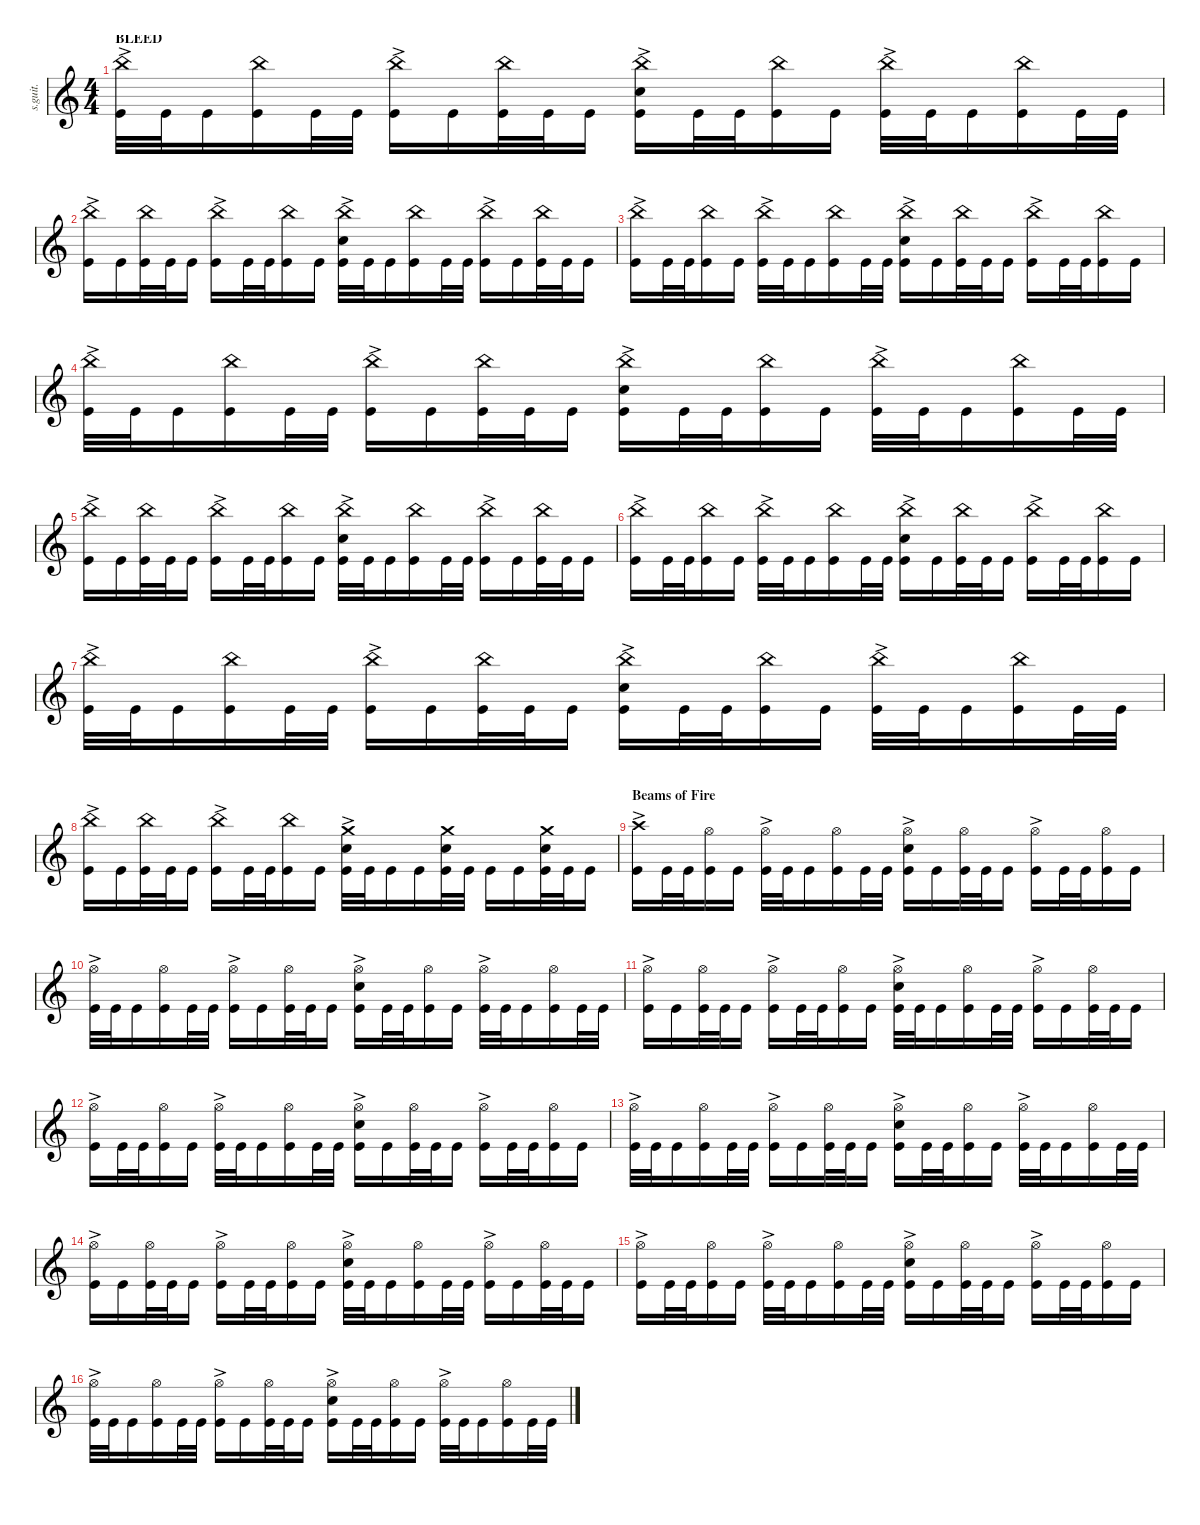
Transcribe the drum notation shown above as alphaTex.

\defaultSystemsLayout 4
\hideDynamics
\bracketExtendMode nobrackets
\track ("Tomas Haake (Drums)" "s.guit.") {instrument percussion}
\staff {score}
\articulation defaults
\ts (4 4)
\beaming (8 2 2 2 2)
\section ("" "BLEED")
\tempo (115 hide)
\clef g2
\ks c
("China (hit)"{ac} "Kick (hit)").32{lyrics (0 "") lyrics (1 "") lyrics (2 "") lyrics (3 "") lyrics (4 "") dy f} "Kick (hit)".32{lyrics (0 "") lyrics (1 "") lyrics (2 "") lyrics (3 "") lyrics (4 "") dy mf} "Kick (hit)".16{lyrics (0 "") lyrics (1 "") lyrics (2 "") lyrics (3 "") lyrics (4 "") dy f} ("China (hit)" "Kick (hit)").16{lyrics (0 "") lyrics (1 "") lyrics (2 "") lyrics (3 "") lyrics (4 "") dy mp} "Kick (hit)".32{lyrics (0 "") lyrics (1 "") lyrics (2 "") lyrics (3 "") lyrics (4 "") dy f} "Kick (hit)".32{lyrics (0 "") lyrics (1 "") lyrics (2 "") lyrics (3 "") lyrics (4 "") dy mf} ("China (hit)"{ac} "Kick (hit)").16{lyrics (0 "") lyrics (1 "") lyrics (2 "") lyrics (3 "") lyrics (4 "") dy f} "Kick (hit)".16{lyrics (0 "") lyrics (1 "") lyrics (2 "") lyrics (3 "") lyrics (4 "")} ("China (hit)" "Kick (hit)").32{lyrics (0 "") lyrics (1 "") lyrics (2 "") lyrics (3 "") lyrics (4 "") dy mp} "Kick (hit)".32{lyrics (0 "") lyrics (1 "") lyrics (2 "") lyrics (3 "") lyrics (4 "") dy mf} "Kick (hit)".16{lyrics (0 "") lyrics (1 "") lyrics (2 "") lyrics (3 "") lyrics (4 "") dy f} ("China (hit)"{ac} "Snare (hit) 2" "Kick (hit)").16{lyrics (0 "") lyrics (1 "") lyrics (2 "") lyrics (3 "") lyrics (4 "")} "Kick (hit)".32{lyrics (0 "") lyrics (1 "") lyrics (2 "") lyrics (3 "") lyrics (4 "")} "Kick (hit)".32{lyrics (0 "") lyrics (1 "") lyrics (2 "") lyrics (3 "") lyrics (4 "") dy mf} ("China (hit)" "Kick (hit)").16{lyrics (0 "") lyrics (1 "") lyrics (2 "") lyrics (3 "") lyrics (4 "") dy mp} "Kick (hit)".16{lyrics (0 "") lyrics (1 "") lyrics (2 "") lyrics (3 "") lyrics (4 "") dy f} ("China (hit)"{ac} "Kick (hit)").32{lyrics (0 "") lyrics (1 "") lyrics (2 "") lyrics (3 "") lyrics (4 "")} "Kick (hit)".32{lyrics (0 "") lyrics (1 "") lyrics (2 "") lyrics (3 "") lyrics (4 "") dy mf} "Kick (hit)".16{lyrics (0 "") lyrics (1 "") lyrics (2 "") lyrics (3 "") lyrics (4 "") dy f} ("China (hit)" "Kick (hit)").16{lyrics (0 "") lyrics (1 "") lyrics (2 "") lyrics (3 "") lyrics (4 "") dy mp} "Kick (hit)".32{lyrics (0 "") lyrics (1 "") lyrics (2 "") lyrics (3 "") lyrics (4 "") dy f} "Kick (hit)".32{lyrics (0 "") lyrics (1 "") lyrics (2 "") lyrics (3 "") lyrics (4 "") dy mf} |
("China (hit)"{ac} "Kick (hit)").16{lyrics (0 "") lyrics (1 "") lyrics (2 "") lyrics (3 "") lyrics (4 "") dy f} "Kick (hit)".16{lyrics (0 "") lyrics (1 "") lyrics (2 "") lyrics (3 "") lyrics (4 "")} ("China (hit)" "Kick (hit)").32{lyrics (0 "") lyrics (1 "") lyrics (2 "") lyrics (3 "") lyrics (4 "") dy mp} "Kick (hit)".32{lyrics (0 "") lyrics (1 "") lyrics (2 "") lyrics (3 "") lyrics (4 "") dy mf} "Kick (hit)".16{lyrics (0 "") lyrics (1 "") lyrics (2 "") lyrics (3 "") lyrics (4 "") dy f} ("China (hit)"{ac} "Kick (hit)").16{lyrics (0 "") lyrics (1 "") lyrics (2 "") lyrics (3 "") lyrics (4 "")} "Kick (hit)".32{lyrics (0 "") lyrics (1 "") lyrics (2 "") lyrics (3 "") lyrics (4 "")} "Kick (hit)".32{lyrics (0 "") lyrics (1 "") lyrics (2 "") lyrics (3 "") lyrics (4 "") dy mf} ("China (hit)" "Kick (hit)").16{lyrics (0 "") lyrics (1 "") lyrics (2 "") lyrics (3 "") lyrics (4 "") dy mp} "Kick (hit)".16{lyrics (0 "") lyrics (1 "") lyrics (2 "") lyrics (3 "") lyrics (4 "") dy f} ("China (hit)"{ac} "Snare (hit) 2" "Kick (hit)").32{lyrics (0 "") lyrics (1 "") lyrics (2 "") lyrics (3 "") lyrics (4 "")} "Kick (hit)".32{lyrics (0 "") lyrics (1 "") lyrics (2 "") lyrics (3 "") lyrics (4 "") dy mf} "Kick (hit)".16{lyrics (0 "") lyrics (1 "") lyrics (2 "") lyrics (3 "") lyrics (4 "") dy f} ("China (hit)" "Kick (hit)").16{lyrics (0 "") lyrics (1 "") lyrics (2 "") lyrics (3 "") lyrics (4 "") dy mp} "Kick (hit)".32{lyrics (0 "") lyrics (1 "") lyrics (2 "") lyrics (3 "") lyrics (4 "") dy f} "Kick (hit)".32{lyrics (0 "") lyrics (1 "") lyrics (2 "") lyrics (3 "") lyrics (4 "") dy mf} ("China (hit)"{ac} "Kick (hit)").16{lyrics (0 "") lyrics (1 "") lyrics (2 "") lyrics (3 "") lyrics (4 "") dy f} "Kick (hit)".16{lyrics (0 "") lyrics (1 "") lyrics (2 "") lyrics (3 "") lyrics (4 "")} ("China (hit)" "Kick (hit)").32{lyrics (0 "") lyrics (1 "") lyrics (2 "") lyrics (3 "") lyrics (4 "") dy mp} "Kick (hit)".32{lyrics (0 "") lyrics (1 "") lyrics (2 "") lyrics (3 "") lyrics (4 "") dy mf} "Kick (hit)".16{lyrics (0 "") lyrics (1 "") lyrics (2 "") lyrics (3 "") lyrics (4 "") dy f} |
("China (hit)"{ac} "Kick (hit)").16{lyrics (0 "") lyrics (1 "") lyrics (2 "") lyrics (3 "") lyrics (4 "")} "Kick (hit)".32{lyrics (0 "") lyrics (1 "") lyrics (2 "") lyrics (3 "") lyrics (4 "")} "Kick (hit)".32{lyrics (0 "") lyrics (1 "") lyrics (2 "") lyrics (3 "") lyrics (4 "") dy mf} ("China (hit)" "Kick (hit)").16{lyrics (0 "") lyrics (1 "") lyrics (2 "") lyrics (3 "") lyrics (4 "") dy mp} "Kick (hit)".16{lyrics (0 "") lyrics (1 "") lyrics (2 "") lyrics (3 "") lyrics (4 "") dy f} ("China (hit)"{ac} "Kick (hit)").32{lyrics (0 "") lyrics (1 "") lyrics (2 "") lyrics (3 "") lyrics (4 "")} "Kick (hit)".32{lyrics (0 "") lyrics (1 "") lyrics (2 "") lyrics (3 "") lyrics (4 "") dy mf} "Kick (hit)".16{lyrics (0 "") lyrics (1 "") lyrics (2 "") lyrics (3 "") lyrics (4 "") dy f} ("China (hit)" "Kick (hit)").16{lyrics (0 "") lyrics (1 "") lyrics (2 "") lyrics (3 "") lyrics (4 "") dy mp} "Kick (hit)".32{lyrics (0 "") lyrics (1 "") lyrics (2 "") lyrics (3 "") lyrics (4 "") dy f} "Kick (hit)".32{lyrics (0 "") lyrics (1 "") lyrics (2 "") lyrics (3 "") lyrics (4 "") dy mf} ("China (hit)"{ac} "Snare (hit) 2" "Kick (hit)").16{lyrics (0 "") lyrics (1 "") lyrics (2 "") lyrics (3 "") lyrics (4 "") dy f} "Kick (hit)".16{lyrics (0 "") lyrics (1 "") lyrics (2 "") lyrics (3 "") lyrics (4 "")} ("China (hit)" "Kick (hit)").32{lyrics (0 "") lyrics (1 "") lyrics (2 "") lyrics (3 "") lyrics (4 "") dy mp} "Kick (hit)".32{lyrics (0 "") lyrics (1 "") lyrics (2 "") lyrics (3 "") lyrics (4 "") dy mf} "Kick (hit)".16{lyrics (0 "") lyrics (1 "") lyrics (2 "") lyrics (3 "") lyrics (4 "") dy f} ("China (hit)"{ac} "Kick (hit)").16{lyrics (0 "") lyrics (1 "") lyrics (2 "") lyrics (3 "") lyrics (4 "")} "Kick (hit)".32{lyrics (0 "") lyrics (1 "") lyrics (2 "") lyrics (3 "") lyrics (4 "")} "Kick (hit)".32{lyrics (0 "") lyrics (1 "") lyrics (2 "") lyrics (3 "") lyrics (4 "") dy mf} ("China (hit)" "Kick (hit)").16{lyrics (0 "") lyrics (1 "") lyrics (2 "") lyrics (3 "") lyrics (4 "") dy mp} "Kick (hit)".16{lyrics (0 "") lyrics (1 "") lyrics (2 "") lyrics (3 "") lyrics (4 "") dy f} |
("China (hit)"{ac} "Kick (hit)").32{lyrics (0 "") lyrics (1 "") lyrics (2 "") lyrics (3 "") lyrics (4 "")} "Kick (hit)".32{lyrics (0 "") lyrics (1 "") lyrics (2 "") lyrics (3 "") lyrics (4 "") dy mf} "Kick (hit)".16{lyrics (0 "") lyrics (1 "") lyrics (2 "") lyrics (3 "") lyrics (4 "") dy f} ("China (hit)" "Kick (hit)").16{lyrics (0 "") lyrics (1 "") lyrics (2 "") lyrics (3 "") lyrics (4 "") dy mp} "Kick (hit)".32{lyrics (0 "") lyrics (1 "") lyrics (2 "") lyrics (3 "") lyrics (4 "") dy f} "Kick (hit)".32{lyrics (0 "") lyrics (1 "") lyrics (2 "") lyrics (3 "") lyrics (4 "") dy mf} ("China (hit)"{ac} "Kick (hit)").16{lyrics (0 "") lyrics (1 "") lyrics (2 "") lyrics (3 "") lyrics (4 "") dy f} "Kick (hit)".16{lyrics (0 "") lyrics (1 "") lyrics (2 "") lyrics (3 "") lyrics (4 "")} ("China (hit)" "Kick (hit)").32{lyrics (0 "") lyrics (1 "") lyrics (2 "") lyrics (3 "") lyrics (4 "") dy mp} "Kick (hit)".32{lyrics (0 "") lyrics (1 "") lyrics (2 "") lyrics (3 "") lyrics (4 "") dy mf} "Kick (hit)".16{lyrics (0 "") lyrics (1 "") lyrics (2 "") lyrics (3 "") lyrics (4 "") dy f} ("China (hit)"{ac} "Snare (hit) 2" "Kick (hit)").16{lyrics (0 "") lyrics (1 "") lyrics (2 "") lyrics (3 "") lyrics (4 "")} "Kick (hit)".32{lyrics (0 "") lyrics (1 "") lyrics (2 "") lyrics (3 "") lyrics (4 "")} "Kick (hit)".32{lyrics (0 "") lyrics (1 "") lyrics (2 "") lyrics (3 "") lyrics (4 "") dy mf} ("China (hit)" "Kick (hit)").16{lyrics (0 "") lyrics (1 "") lyrics (2 "") lyrics (3 "") lyrics (4 "") dy mp} "Kick (hit)".16{lyrics (0 "") lyrics (1 "") lyrics (2 "") lyrics (3 "") lyrics (4 "") dy f} ("China (hit)"{ac} "Kick (hit)").32{lyrics (0 "") lyrics (1 "") lyrics (2 "") lyrics (3 "") lyrics (4 "")} "Kick (hit)".32{lyrics (0 "") lyrics (1 "") lyrics (2 "") lyrics (3 "") lyrics (4 "") dy mf} "Kick (hit)".16{lyrics (0 "") lyrics (1 "") lyrics (2 "") lyrics (3 "") lyrics (4 "") dy f} ("China (hit)" "Kick (hit)").16{lyrics (0 "") lyrics (1 "") lyrics (2 "") lyrics (3 "") lyrics (4 "") dy mp} "Kick (hit)".32{lyrics (0 "") lyrics (1 "") lyrics (2 "") lyrics (3 "") lyrics (4 "") dy f} "Kick (hit)".32{lyrics (0 "") lyrics (1 "") lyrics (2 "") lyrics (3 "") lyrics (4 "") dy mf} |
("China (hit)"{ac} "Kick (hit)").16{lyrics (0 "") lyrics (1 "") lyrics (2 "") lyrics (3 "") lyrics (4 "") dy f} "Kick (hit)".16{lyrics (0 "") lyrics (1 "") lyrics (2 "") lyrics (3 "") lyrics (4 "")} ("China (hit)" "Kick (hit)").32{lyrics (0 "") lyrics (1 "") lyrics (2 "") lyrics (3 "") lyrics (4 "") dy mp} "Kick (hit)".32{lyrics (0 "") lyrics (1 "") lyrics (2 "") lyrics (3 "") lyrics (4 "") dy mf} "Kick (hit)".16{lyrics (0 "") lyrics (1 "") lyrics (2 "") lyrics (3 "") lyrics (4 "") dy f} ("China (hit)"{ac} "Kick (hit)").16{lyrics (0 "") lyrics (1 "") lyrics (2 "") lyrics (3 "") lyrics (4 "")} "Kick (hit)".32{lyrics (0 "") lyrics (1 "") lyrics (2 "") lyrics (3 "") lyrics (4 "")} "Kick (hit)".32{lyrics (0 "") lyrics (1 "") lyrics (2 "") lyrics (3 "") lyrics (4 "") dy mf} ("China (hit)" "Kick (hit)").16{lyrics (0 "") lyrics (1 "") lyrics (2 "") lyrics (3 "") lyrics (4 "") dy mp} "Kick (hit)".16{lyrics (0 "") lyrics (1 "") lyrics (2 "") lyrics (3 "") lyrics (4 "") dy f} ("China (hit)"{ac} "Snare (hit) 2" "Kick (hit)").32{lyrics (0 "") lyrics (1 "") lyrics (2 "") lyrics (3 "") lyrics (4 "")} "Kick (hit)".32{lyrics (0 "") lyrics (1 "") lyrics (2 "") lyrics (3 "") lyrics (4 "") dy mf} "Kick (hit)".16{lyrics (0 "") lyrics (1 "") lyrics (2 "") lyrics (3 "") lyrics (4 "") dy f} ("China (hit)" "Kick (hit)").16{lyrics (0 "") lyrics (1 "") lyrics (2 "") lyrics (3 "") lyrics (4 "") dy mp} "Kick (hit)".32{lyrics (0 "") lyrics (1 "") lyrics (2 "") lyrics (3 "") lyrics (4 "") dy f} "Kick (hit)".32{lyrics (0 "") lyrics (1 "") lyrics (2 "") lyrics (3 "") lyrics (4 "") dy mf} ("China (hit)"{ac} "Kick (hit)").16{lyrics (0 "") lyrics (1 "") lyrics (2 "") lyrics (3 "") lyrics (4 "") dy f} "Kick (hit)".16{lyrics (0 "") lyrics (1 "") lyrics (2 "") lyrics (3 "") lyrics (4 "")} ("China (hit)" "Kick (hit)").32{lyrics (0 "") lyrics (1 "") lyrics (2 "") lyrics (3 "") lyrics (4 "") dy mp} "Kick (hit)".32{lyrics (0 "") lyrics (1 "") lyrics (2 "") lyrics (3 "") lyrics (4 "") dy mf} "Kick (hit)".16{lyrics (0 "") lyrics (1 "") lyrics (2 "") lyrics (3 "") lyrics (4 "") dy f} |
("China (hit)"{ac} "Kick (hit)").16{lyrics (0 "") lyrics (1 "") lyrics (2 "") lyrics (3 "") lyrics (4 "")} "Kick (hit)".32{lyrics (0 "") lyrics (1 "") lyrics (2 "") lyrics (3 "") lyrics (4 "")} "Kick (hit)".32{lyrics (0 "") lyrics (1 "") lyrics (2 "") lyrics (3 "") lyrics (4 "") dy mf} ("China (hit)" "Kick (hit)").16{lyrics (0 "") lyrics (1 "") lyrics (2 "") lyrics (3 "") lyrics (4 "") dy mp} "Kick (hit)".16{lyrics (0 "") lyrics (1 "") lyrics (2 "") lyrics (3 "") lyrics (4 "") dy f} ("China (hit)"{ac} "Kick (hit)").32{lyrics (0 "") lyrics (1 "") lyrics (2 "") lyrics (3 "") lyrics (4 "")} "Kick (hit)".32{lyrics (0 "") lyrics (1 "") lyrics (2 "") lyrics (3 "") lyrics (4 "") dy mf} "Kick (hit)".16{lyrics (0 "") lyrics (1 "") lyrics (2 "") lyrics (3 "") lyrics (4 "") dy f} ("China (hit)" "Kick (hit)").16{lyrics (0 "") lyrics (1 "") lyrics (2 "") lyrics (3 "") lyrics (4 "") dy mp} "Kick (hit)".32{lyrics (0 "") lyrics (1 "") lyrics (2 "") lyrics (3 "") lyrics (4 "") dy f} "Kick (hit)".32{lyrics (0 "") lyrics (1 "") lyrics (2 "") lyrics (3 "") lyrics (4 "") dy mf} ("China (hit)"{ac} "Snare (hit) 2" "Kick (hit)").16{lyrics (0 "") lyrics (1 "") lyrics (2 "") lyrics (3 "") lyrics (4 "") dy f} "Kick (hit)".16{lyrics (0 "") lyrics (1 "") lyrics (2 "") lyrics (3 "") lyrics (4 "")} ("China (hit)" "Kick (hit)").32{lyrics (0 "") lyrics (1 "") lyrics (2 "") lyrics (3 "") lyrics (4 "") dy mp} "Kick (hit)".32{lyrics (0 "") lyrics (1 "") lyrics (2 "") lyrics (3 "") lyrics (4 "") dy mf} "Kick (hit)".16{lyrics (0 "") lyrics (1 "") lyrics (2 "") lyrics (3 "") lyrics (4 "") dy f} ("China (hit)"{ac} "Kick (hit)").16{lyrics (0 "") lyrics (1 "") lyrics (2 "") lyrics (3 "") lyrics (4 "")} "Kick (hit)".32{lyrics (0 "") lyrics (1 "") lyrics (2 "") lyrics (3 "") lyrics (4 "")} "Kick (hit)".32{lyrics (0 "") lyrics (1 "") lyrics (2 "") lyrics (3 "") lyrics (4 "") dy mf} ("China (hit)" "Kick (hit)").16{lyrics (0 "") lyrics (1 "") lyrics (2 "") lyrics (3 "") lyrics (4 "") dy mp} "Kick (hit)".16{lyrics (0 "") lyrics (1 "") lyrics (2 "") lyrics (3 "") lyrics (4 "") dy f} |
("China (hit)"{ac} "Kick (hit)").32{lyrics (0 "") lyrics (1 "") lyrics (2 "") lyrics (3 "") lyrics (4 "")} "Kick (hit)".32{lyrics (0 "") lyrics (1 "") lyrics (2 "") lyrics (3 "") lyrics (4 "") dy mf} "Kick (hit)".16{lyrics (0 "") lyrics (1 "") lyrics (2 "") lyrics (3 "") lyrics (4 "") dy f} ("China (hit)" "Kick (hit)").16{lyrics (0 "") lyrics (1 "") lyrics (2 "") lyrics (3 "") lyrics (4 "") dy mp} "Kick (hit)".32{lyrics (0 "") lyrics (1 "") lyrics (2 "") lyrics (3 "") lyrics (4 "") dy f} "Kick (hit)".32{lyrics (0 "") lyrics (1 "") lyrics (2 "") lyrics (3 "") lyrics (4 "") dy mf} ("China (hit)"{ac} "Kick (hit)").16{lyrics (0 "") lyrics (1 "") lyrics (2 "") lyrics (3 "") lyrics (4 "") dy f} "Kick (hit)".16{lyrics (0 "") lyrics (1 "") lyrics (2 "") lyrics (3 "") lyrics (4 "")} ("China (hit)" "Kick (hit)").32{lyrics (0 "") lyrics (1 "") lyrics (2 "") lyrics (3 "") lyrics (4 "") dy mp} "Kick (hit)".32{lyrics (0 "") lyrics (1 "") lyrics (2 "") lyrics (3 "") lyrics (4 "") dy mf} "Kick (hit)".16{lyrics (0 "") lyrics (1 "") lyrics (2 "") lyrics (3 "") lyrics (4 "") dy f} ("China (hit)"{ac} "Snare (hit) 2" "Kick (hit)").16{lyrics (0 "") lyrics (1 "") lyrics (2 "") lyrics (3 "") lyrics (4 "")} "Kick (hit)".32{lyrics (0 "") lyrics (1 "") lyrics (2 "") lyrics (3 "") lyrics (4 "")} "Kick (hit)".32{lyrics (0 "") lyrics (1 "") lyrics (2 "") lyrics (3 "") lyrics (4 "") dy mf} ("China (hit)" "Kick (hit)").16{lyrics (0 "") lyrics (1 "") lyrics (2 "") lyrics (3 "") lyrics (4 "") dy mp} "Kick (hit)".16{lyrics (0 "") lyrics (1 "") lyrics (2 "") lyrics (3 "") lyrics (4 "") dy f} ("China (hit)"{ac} "Kick (hit)").32{lyrics (0 "") lyrics (1 "") lyrics (2 "") lyrics (3 "") lyrics (4 "")} "Kick (hit)".32{lyrics (0 "") lyrics (1 "") lyrics (2 "") lyrics (3 "") lyrics (4 "") dy mf} "Kick (hit)".16{lyrics (0 "") lyrics (1 "") lyrics (2 "") lyrics (3 "") lyrics (4 "") dy f} ("China (hit)" "Kick (hit)").16{lyrics (0 "") lyrics (1 "") lyrics (2 "") lyrics (3 "") lyrics (4 "") dy mp} "Kick (hit)".32{lyrics (0 "") lyrics (1 "") lyrics (2 "") lyrics (3 "") lyrics (4 "") dy f} "Kick (hit)".32{lyrics (0 "") lyrics (1 "") lyrics (2 "") lyrics (3 "") lyrics (4 "") dy mf} |
("China (hit)"{ac} "Kick (hit)").16{lyrics (0 "") lyrics (1 "") lyrics (2 "") lyrics (3 "") lyrics (4 "") dy f} "Kick (hit)".16{lyrics (0 "") lyrics (1 "") lyrics (2 "") lyrics (3 "") lyrics (4 "")} ("China (hit)" "Kick (hit)").32{lyrics (0 "") lyrics (1 "") lyrics (2 "") lyrics (3 "") lyrics (4 "") dy mp} "Kick (hit)".32{lyrics (0 "") lyrics (1 "") lyrics (2 "") lyrics (3 "") lyrics (4 "") dy mf} "Kick (hit)".16{lyrics (0 "") lyrics (1 "") lyrics (2 "") lyrics (3 "") lyrics (4 "") dy f} ("China (hit)"{ac} "Kick (hit)").16{lyrics (0 "") lyrics (1 "") lyrics (2 "") lyrics (3 "") lyrics (4 "")} "Kick (hit)".32{lyrics (0 "") lyrics (1 "") lyrics (2 "") lyrics (3 "") lyrics (4 "")} "Kick (hit)".32{lyrics (0 "") lyrics (1 "") lyrics (2 "") lyrics (3 "") lyrics (4 "") dy mf} ("China (hit)" "Kick (hit)").16{lyrics (0 "") lyrics (1 "") lyrics (2 "") lyrics (3 "") lyrics (4 "") dy mp} "Kick (hit)".16{lyrics (0 "") lyrics (1 "") lyrics (2 "") lyrics (3 "") lyrics (4 "") dy f} ("Crash medium (hit)"{ac} "Snare (hit) 2" "Kick (hit)").32{lyrics (0 "") lyrics (1 "") lyrics (2 "") lyrics (3 "") lyrics (4 "")} "Kick (hit)".32{lyrics (0 "") lyrics (1 "") lyrics (2 "") lyrics (3 "") lyrics (4 "") dy mf} "Kick (hit)".16{lyrics (0 "") lyrics (1 "") lyrics (2 "") lyrics (3 "") lyrics (4 "") dy f} "Kick (hit)".16{lyrics (0 "") lyrics (1 "") lyrics (2 "") lyrics (3 "") lyrics (4 "")} ("Crash medium (hit)" "Snare (hit) 2" "Kick (hit)").32{lyrics (0 "") lyrics (1 "") lyrics (2 "") lyrics (3 "") lyrics (4 "")} "Kick (hit)".32{lyrics (0 "") lyrics (1 "") lyrics (2 "") lyrics (3 "") lyrics (4 "") dy mf} "Kick (hit)".16{lyrics (0 "") lyrics (1 "") lyrics (2 "") lyrics (3 "") lyrics (4 "") dy f} "Kick (hit)".16{lyrics (0 "") lyrics (1 "") lyrics (2 "") lyrics (3 "") lyrics (4 "")} ("Crash medium (hit)" "Snare (hit) 2" "Kick (hit)").32{lyrics (0 "") lyrics (1 "") lyrics (2 "") lyrics (3 "") lyrics (4 "") dy mf} "Kick (hit)".32{lyrics (0 "") lyrics (1 "") lyrics (2 "") lyrics (3 "") lyrics (4 "")} "Kick (hit)".16{lyrics (0 "") lyrics (1 "") lyrics (2 "") lyrics (3 "") lyrics (4 "") dy f} |
\section ("" "Beams of Fire")
("Crash high (hit)"{ac} "Kick (hit)").16{lyrics (0 "") lyrics (1 "") lyrics (2 "") lyrics (3 "") lyrics (4 "")} "Kick (hit)".32{lyrics (0 "") lyrics (1 "") lyrics (2 "") lyrics (3 "") lyrics (4 "")} "Kick (hit)".32{lyrics (0 "") lyrics (1 "") lyrics (2 "") lyrics (3 "") lyrics (4 "") dy mf} ("Hi-Hat (open)" "Kick (hit)").16{lyrics (0 "") lyrics (1 "") lyrics (2 "") lyrics (3 "") lyrics (4 "") dy p} "Kick (hit)".16{lyrics (0 "") lyrics (1 "") lyrics (2 "") lyrics (3 "") lyrics (4 "") dy f} ("Hi-Hat (open)"{ac} "Kick (hit)").32{lyrics (0 "") lyrics (1 "") lyrics (2 "") lyrics (3 "") lyrics (4 "")} "Kick (hit)".32{lyrics (0 "") lyrics (1 "") lyrics (2 "") lyrics (3 "") lyrics (4 "") dy mf} "Kick (hit)".16{lyrics (0 "") lyrics (1 "") lyrics (2 "") lyrics (3 "") lyrics (4 "") dy f} ("Hi-Hat (open)" "Kick (hit)").16{lyrics (0 "") lyrics (1 "") lyrics (2 "") lyrics (3 "") lyrics (4 "") dy p} "Kick (hit)".32{lyrics (0 "") lyrics (1 "") lyrics (2 "") lyrics (3 "") lyrics (4 "") dy f} "Kick (hit)".32{lyrics (0 "") lyrics (1 "") lyrics (2 "") lyrics (3 "") lyrics (4 "") dy mf} ("Hi-Hat (open)"{ac} "Snare (hit) 2" "Kick (hit)").16{lyrics (0 "") lyrics (1 "") lyrics (2 "") lyrics (3 "") lyrics (4 "") dy f} "Kick (hit)".16{lyrics (0 "") lyrics (1 "") lyrics (2 "") lyrics (3 "") lyrics (4 "")} ("Hi-Hat (open)" "Kick (hit)").32{lyrics (0 "") lyrics (1 "") lyrics (2 "") lyrics (3 "") lyrics (4 "") dy p} "Kick (hit)".32{lyrics (0 "") lyrics (1 "") lyrics (2 "") lyrics (3 "") lyrics (4 "") dy mf} "Kick (hit)".16{lyrics (0 "") lyrics (1 "") lyrics (2 "") lyrics (3 "") lyrics (4 "") dy f} ("Hi-Hat (open)"{ac} "Kick (hit)").16{lyrics (0 "") lyrics (1 "") lyrics (2 "") lyrics (3 "") lyrics (4 "")} "Kick (hit)".32{lyrics (0 "") lyrics (1 "") lyrics (2 "") lyrics (3 "") lyrics (4 "")} "Kick (hit)".32{lyrics (0 "") lyrics (1 "") lyrics (2 "") lyrics (3 "") lyrics (4 "") dy mf} ("Hi-Hat (open)" "Kick (hit)").16{lyrics (0 "") lyrics (1 "") lyrics (2 "") lyrics (3 "") lyrics (4 "") dy p} "Kick (hit)".16{lyrics (0 "") lyrics (1 "") lyrics (2 "") lyrics (3 "") lyrics (4 "") dy f} |
("Hi-Hat (open)"{ac} "Kick (hit)").32{lyrics (0 "") lyrics (1 "") lyrics (2 "") lyrics (3 "") lyrics (4 "")} "Kick (hit)".32{lyrics (0 "") lyrics (1 "") lyrics (2 "") lyrics (3 "") lyrics (4 "") dy mf} "Kick (hit)".16{lyrics (0 "") lyrics (1 "") lyrics (2 "") lyrics (3 "") lyrics (4 "") dy f} ("Hi-Hat (open)" "Kick (hit)").16{lyrics (0 "") lyrics (1 "") lyrics (2 "") lyrics (3 "") lyrics (4 "") dy p} "Kick (hit)".32{lyrics (0 "") lyrics (1 "") lyrics (2 "") lyrics (3 "") lyrics (4 "") dy f} "Kick (hit)".32{lyrics (0 "") lyrics (1 "") lyrics (2 "") lyrics (3 "") lyrics (4 "") dy mf} ("Hi-Hat (open)"{ac} "Kick (hit)").16{lyrics (0 "") lyrics (1 "") lyrics (2 "") lyrics (3 "") lyrics (4 "") dy f} "Kick (hit)".16{lyrics (0 "") lyrics (1 "") lyrics (2 "") lyrics (3 "") lyrics (4 "")} ("Hi-Hat (open)" "Kick (hit)").32{lyrics (0 "") lyrics (1 "") lyrics (2 "") lyrics (3 "") lyrics (4 "") dy p} "Kick (hit)".32{lyrics (0 "") lyrics (1 "") lyrics (2 "") lyrics (3 "") lyrics (4 "") dy mf} "Kick (hit)".16{lyrics (0 "") lyrics (1 "") lyrics (2 "") lyrics (3 "") lyrics (4 "") dy f} ("Hi-Hat (open)"{ac} "Snare (hit) 2" "Kick (hit)").16{lyrics (0 "") lyrics (1 "") lyrics (2 "") lyrics (3 "") lyrics (4 "")} "Kick (hit)".32{lyrics (0 "") lyrics (1 "") lyrics (2 "") lyrics (3 "") lyrics (4 "")} "Kick (hit)".32{lyrics (0 "") lyrics (1 "") lyrics (2 "") lyrics (3 "") lyrics (4 "") dy mf} ("Hi-Hat (open)" "Kick (hit)").16{lyrics (0 "") lyrics (1 "") lyrics (2 "") lyrics (3 "") lyrics (4 "") dy p} "Kick (hit)".16{lyrics (0 "") lyrics (1 "") lyrics (2 "") lyrics (3 "") lyrics (4 "") dy f} ("Hi-Hat (open)"{ac} "Kick (hit)").32{lyrics (0 "") lyrics (1 "") lyrics (2 "") lyrics (3 "") lyrics (4 "")} "Kick (hit)".32{lyrics (0 "") lyrics (1 "") lyrics (2 "") lyrics (3 "") lyrics (4 "") dy mf} "Kick (hit)".16{lyrics (0 "") lyrics (1 "") lyrics (2 "") lyrics (3 "") lyrics (4 "") dy f} ("Hi-Hat (open)" "Kick (hit)").16{lyrics (0 "") lyrics (1 "") lyrics (2 "") lyrics (3 "") lyrics (4 "") dy p} "Kick (hit)".32{lyrics (0 "") lyrics (1 "") lyrics (2 "") lyrics (3 "") lyrics (4 "") dy f} "Kick (hit)".32{lyrics (0 "") lyrics (1 "") lyrics (2 "") lyrics (3 "") lyrics (4 "") dy mf} |
("Hi-Hat (open)"{ac} "Kick (hit)").16{lyrics (0 "") lyrics (1 "") lyrics (2 "") lyrics (3 "") lyrics (4 "") dy f} "Kick (hit)".16{lyrics (0 "") lyrics (1 "") lyrics (2 "") lyrics (3 "") lyrics (4 "")} ("Hi-Hat (open)" "Kick (hit)").32{lyrics (0 "") lyrics (1 "") lyrics (2 "") lyrics (3 "") lyrics (4 "") dy p} "Kick (hit)".32{lyrics (0 "") lyrics (1 "") lyrics (2 "") lyrics (3 "") lyrics (4 "") dy mf} "Kick (hit)".16{lyrics (0 "") lyrics (1 "") lyrics (2 "") lyrics (3 "") lyrics (4 "") dy f} ("Hi-Hat (open)"{ac} "Kick (hit)").16{lyrics (0 "") lyrics (1 "") lyrics (2 "") lyrics (3 "") lyrics (4 "")} "Kick (hit)".32{lyrics (0 "") lyrics (1 "") lyrics (2 "") lyrics (3 "") lyrics (4 "")} "Kick (hit)".32{lyrics (0 "") lyrics (1 "") lyrics (2 "") lyrics (3 "") lyrics (4 "") dy mf} ("Hi-Hat (open)" "Kick (hit)").16{lyrics (0 "") lyrics (1 "") lyrics (2 "") lyrics (3 "") lyrics (4 "") dy p} "Kick (hit)".16{lyrics (0 "") lyrics (1 "") lyrics (2 "") lyrics (3 "") lyrics (4 "") dy f} ("Hi-Hat (open)"{ac} "Snare (hit) 2" "Kick (hit)").32{lyrics (0 "") lyrics (1 "") lyrics (2 "") lyrics (3 "") lyrics (4 "")} "Kick (hit)".32{lyrics (0 "") lyrics (1 "") lyrics (2 "") lyrics (3 "") lyrics (4 "") dy mf} "Kick (hit)".16{lyrics (0 "") lyrics (1 "") lyrics (2 "") lyrics (3 "") lyrics (4 "") dy f} ("Hi-Hat (open)" "Kick (hit)").16{lyrics (0 "") lyrics (1 "") lyrics (2 "") lyrics (3 "") lyrics (4 "") dy p} "Kick (hit)".32{lyrics (0 "") lyrics (1 "") lyrics (2 "") lyrics (3 "") lyrics (4 "") dy f} "Kick (hit)".32{lyrics (0 "") lyrics (1 "") lyrics (2 "") lyrics (3 "") lyrics (4 "") dy mf} ("Hi-Hat (open)"{ac} "Kick (hit)").16{lyrics (0 "") lyrics (1 "") lyrics (2 "") lyrics (3 "") lyrics (4 "") dy f} "Kick (hit)".16{lyrics (0 "") lyrics (1 "") lyrics (2 "") lyrics (3 "") lyrics (4 "")} ("Hi-Hat (open)" "Kick (hit)").32{lyrics (0 "") lyrics (1 "") lyrics (2 "") lyrics (3 "") lyrics (4 "") dy p} "Kick (hit)".32{lyrics (0 "") lyrics (1 "") lyrics (2 "") lyrics (3 "") lyrics (4 "") dy mf} "Kick (hit)".16{lyrics (0 "") lyrics (1 "") lyrics (2 "") lyrics (3 "") lyrics (4 "") dy f} |
("Hi-Hat (open)"{ac} "Kick (hit)").16{lyrics (0 "") lyrics (1 "") lyrics (2 "") lyrics (3 "") lyrics (4 "")} "Kick (hit)".32{lyrics (0 "") lyrics (1 "") lyrics (2 "") lyrics (3 "") lyrics (4 "")} "Kick (hit)".32{lyrics (0 "") lyrics (1 "") lyrics (2 "") lyrics (3 "") lyrics (4 "") dy mf} ("Hi-Hat (open)" "Kick (hit)").16{lyrics (0 "") lyrics (1 "") lyrics (2 "") lyrics (3 "") lyrics (4 "") dy p} "Kick (hit)".16{lyrics (0 "") lyrics (1 "") lyrics (2 "") lyrics (3 "") lyrics (4 "") dy f} ("Hi-Hat (open)"{ac} "Kick (hit)").32{lyrics (0 "") lyrics (1 "") lyrics (2 "") lyrics (3 "") lyrics (4 "")} "Kick (hit)".32{lyrics (0 "") lyrics (1 "") lyrics (2 "") lyrics (3 "") lyrics (4 "") dy mf} "Kick (hit)".16{lyrics (0 "") lyrics (1 "") lyrics (2 "") lyrics (3 "") lyrics (4 "") dy f} ("Hi-Hat (open)" "Kick (hit)").16{lyrics (0 "") lyrics (1 "") lyrics (2 "") lyrics (3 "") lyrics (4 "") dy p} "Kick (hit)".32{lyrics (0 "") lyrics (1 "") lyrics (2 "") lyrics (3 "") lyrics (4 "") dy f} "Kick (hit)".32{lyrics (0 "") lyrics (1 "") lyrics (2 "") lyrics (3 "") lyrics (4 "") dy mf} ("Hi-Hat (open)"{ac} "Snare (hit) 2" "Kick (hit)").16{lyrics (0 "") lyrics (1 "") lyrics (2 "") lyrics (3 "") lyrics (4 "") dy f} "Kick (hit)".16{lyrics (0 "") lyrics (1 "") lyrics (2 "") lyrics (3 "") lyrics (4 "")} ("Hi-Hat (open)" "Kick (hit)").32{lyrics (0 "") lyrics (1 "") lyrics (2 "") lyrics (3 "") lyrics (4 "") dy p} "Kick (hit)".32{lyrics (0 "") lyrics (1 "") lyrics (2 "") lyrics (3 "") lyrics (4 "") dy mf} "Kick (hit)".16{lyrics (0 "") lyrics (1 "") lyrics (2 "") lyrics (3 "") lyrics (4 "") dy f} ("Hi-Hat (open)"{ac} "Kick (hit)").16{lyrics (0 "") lyrics (1 "") lyrics (2 "") lyrics (3 "") lyrics (4 "")} "Kick (hit)".32{lyrics (0 "") lyrics (1 "") lyrics (2 "") lyrics (3 "") lyrics (4 "")} "Kick (hit)".32{lyrics (0 "") lyrics (1 "") lyrics (2 "") lyrics (3 "") lyrics (4 "") dy mf} ("Hi-Hat (open)" "Kick (hit)").16{lyrics (0 "") lyrics (1 "") lyrics (2 "") lyrics (3 "") lyrics (4 "") dy p} "Kick (hit)".16{lyrics (0 "") lyrics (1 "") lyrics (2 "") lyrics (3 "") lyrics (4 "") dy f} |
("Hi-Hat (open)"{ac} "Kick (hit)").32{lyrics (0 "") lyrics (1 "") lyrics (2 "") lyrics (3 "") lyrics (4 "")} "Kick (hit)".32{lyrics (0 "") lyrics (1 "") lyrics (2 "") lyrics (3 "") lyrics (4 "") dy mf} "Kick (hit)".16{lyrics (0 "") lyrics (1 "") lyrics (2 "") lyrics (3 "") lyrics (4 "") dy f} ("Hi-Hat (open)" "Kick (hit)").16{lyrics (0 "") lyrics (1 "") lyrics (2 "") lyrics (3 "") lyrics (4 "") dy p} "Kick (hit)".32{lyrics (0 "") lyrics (1 "") lyrics (2 "") lyrics (3 "") lyrics (4 "") dy f} "Kick (hit)".32{lyrics (0 "") lyrics (1 "") lyrics (2 "") lyrics (3 "") lyrics (4 "") dy mf} ("Hi-Hat (open)"{ac} "Kick (hit)").16{lyrics (0 "") lyrics (1 "") lyrics (2 "") lyrics (3 "") lyrics (4 "") dy f} "Kick (hit)".16{lyrics (0 "") lyrics (1 "") lyrics (2 "") lyrics (3 "") lyrics (4 "")} ("Hi-Hat (open)" "Kick (hit)").32{lyrics (0 "") lyrics (1 "") lyrics (2 "") lyrics (3 "") lyrics (4 "") dy p} "Kick (hit)".32{lyrics (0 "") lyrics (1 "") lyrics (2 "") lyrics (3 "") lyrics (4 "") dy mf} "Kick (hit)".16{lyrics (0 "") lyrics (1 "") lyrics (2 "") lyrics (3 "") lyrics (4 "") dy f} ("Hi-Hat (open)"{ac} "Snare (hit) 2" "Kick (hit)").16{lyrics (0 "") lyrics (1 "") lyrics (2 "") lyrics (3 "") lyrics (4 "")} "Kick (hit)".32{lyrics (0 "") lyrics (1 "") lyrics (2 "") lyrics (3 "") lyrics (4 "")} "Kick (hit)".32{lyrics (0 "") lyrics (1 "") lyrics (2 "") lyrics (3 "") lyrics (4 "") dy mf} ("Hi-Hat (open)" "Kick (hit)").16{lyrics (0 "") lyrics (1 "") lyrics (2 "") lyrics (3 "") lyrics (4 "") dy p} "Kick (hit)".16{lyrics (0 "") lyrics (1 "") lyrics (2 "") lyrics (3 "") lyrics (4 "") dy f} ("Hi-Hat (open)"{ac} "Kick (hit)").32{lyrics (0 "") lyrics (1 "") lyrics (2 "") lyrics (3 "") lyrics (4 "")} "Kick (hit)".32{lyrics (0 "") lyrics (1 "") lyrics (2 "") lyrics (3 "") lyrics (4 "") dy mf} "Kick (hit)".16{lyrics (0 "") lyrics (1 "") lyrics (2 "") lyrics (3 "") lyrics (4 "") dy f} ("Hi-Hat (open)" "Kick (hit)").16{lyrics (0 "") lyrics (1 "") lyrics (2 "") lyrics (3 "") lyrics (4 "") dy p} "Kick (hit)".32{lyrics (0 "") lyrics (1 "") lyrics (2 "") lyrics (3 "") lyrics (4 "") dy f} "Kick (hit)".32{lyrics (0 "") lyrics (1 "") lyrics (2 "") lyrics (3 "") lyrics (4 "") dy mf} |
("Hi-Hat (open)"{ac} "Kick (hit)").16{lyrics (0 "") lyrics (1 "") lyrics (2 "") lyrics (3 "") lyrics (4 "") dy f} "Kick (hit)".16{lyrics (0 "") lyrics (1 "") lyrics (2 "") lyrics (3 "") lyrics (4 "")} ("Hi-Hat (open)" "Kick (hit)").32{lyrics (0 "") lyrics (1 "") lyrics (2 "") lyrics (3 "") lyrics (4 "") dy p} "Kick (hit)".32{lyrics (0 "") lyrics (1 "") lyrics (2 "") lyrics (3 "") lyrics (4 "") dy mf} "Kick (hit)".16{lyrics (0 "") lyrics (1 "") lyrics (2 "") lyrics (3 "") lyrics (4 "") dy f} ("Hi-Hat (open)"{ac} "Kick (hit)").16{lyrics (0 "") lyrics (1 "") lyrics (2 "") lyrics (3 "") lyrics (4 "")} "Kick (hit)".32{lyrics (0 "") lyrics (1 "") lyrics (2 "") lyrics (3 "") lyrics (4 "")} "Kick (hit)".32{lyrics (0 "") lyrics (1 "") lyrics (2 "") lyrics (3 "") lyrics (4 "") dy mf} ("Hi-Hat (open)" "Kick (hit)").16{lyrics (0 "") lyrics (1 "") lyrics (2 "") lyrics (3 "") lyrics (4 "") dy p} "Kick (hit)".16{lyrics (0 "") lyrics (1 "") lyrics (2 "") lyrics (3 "") lyrics (4 "") dy f} ("Hi-Hat (open)"{ac} "Snare (hit) 2" "Kick (hit)").32{lyrics (0 "") lyrics (1 "") lyrics (2 "") lyrics (3 "") lyrics (4 "")} "Kick (hit)".32{lyrics (0 "") lyrics (1 "") lyrics (2 "") lyrics (3 "") lyrics (4 "") dy mf} "Kick (hit)".16{lyrics (0 "") lyrics (1 "") lyrics (2 "") lyrics (3 "") lyrics (4 "") dy f} ("Hi-Hat (open)" "Kick (hit)").16{lyrics (0 "") lyrics (1 "") lyrics (2 "") lyrics (3 "") lyrics (4 "") dy p} "Kick (hit)".32{lyrics (0 "") lyrics (1 "") lyrics (2 "") lyrics (3 "") lyrics (4 "") dy f} "Kick (hit)".32{lyrics (0 "") lyrics (1 "") lyrics (2 "") lyrics (3 "") lyrics (4 "") dy mf} ("Hi-Hat (open)"{ac} "Kick (hit)").16{lyrics (0 "") lyrics (1 "") lyrics (2 "") lyrics (3 "") lyrics (4 "") dy f} "Kick (hit)".16{lyrics (0 "") lyrics (1 "") lyrics (2 "") lyrics (3 "") lyrics (4 "")} ("Hi-Hat (open)" "Kick (hit)").32{lyrics (0 "") lyrics (1 "") lyrics (2 "") lyrics (3 "") lyrics (4 "") dy p} "Kick (hit)".32{lyrics (0 "") lyrics (1 "") lyrics (2 "") lyrics (3 "") lyrics (4 "") dy mf} "Kick (hit)".16{lyrics (0 "") lyrics (1 "") lyrics (2 "") lyrics (3 "") lyrics (4 "") dy f} |
("Hi-Hat (open)"{ac} "Kick (hit)").16{lyrics (0 "") lyrics (1 "") lyrics (2 "") lyrics (3 "") lyrics (4 "")} "Kick (hit)".32{lyrics (0 "") lyrics (1 "") lyrics (2 "") lyrics (3 "") lyrics (4 "")} "Kick (hit)".32{lyrics (0 "") lyrics (1 "") lyrics (2 "") lyrics (3 "") lyrics (4 "") dy mf} ("Hi-Hat (open)" "Kick (hit)").16{lyrics (0 "") lyrics (1 "") lyrics (2 "") lyrics (3 "") lyrics (4 "") dy p} "Kick (hit)".16{lyrics (0 "") lyrics (1 "") lyrics (2 "") lyrics (3 "") lyrics (4 "") dy f} ("Hi-Hat (open)"{ac} "Kick (hit)").32{lyrics (0 "") lyrics (1 "") lyrics (2 "") lyrics (3 "") lyrics (4 "")} "Kick (hit)".32{lyrics (0 "") lyrics (1 "") lyrics (2 "") lyrics (3 "") lyrics (4 "") dy mf} "Kick (hit)".16{lyrics (0 "") lyrics (1 "") lyrics (2 "") lyrics (3 "") lyrics (4 "") dy f} ("Hi-Hat (open)" "Kick (hit)").16{lyrics (0 "") lyrics (1 "") lyrics (2 "") lyrics (3 "") lyrics (4 "") dy p} "Kick (hit)".32{lyrics (0 "") lyrics (1 "") lyrics (2 "") lyrics (3 "") lyrics (4 "") dy f} "Kick (hit)".32{lyrics (0 "") lyrics (1 "") lyrics (2 "") lyrics (3 "") lyrics (4 "") dy mf} ("Hi-Hat (open)"{ac} "Snare (hit) 2" "Kick (hit)").16{lyrics (0 "") lyrics (1 "") lyrics (2 "") lyrics (3 "") lyrics (4 "") dy f} "Kick (hit)".16{lyrics (0 "") lyrics (1 "") lyrics (2 "") lyrics (3 "") lyrics (4 "")} ("Hi-Hat (open)" "Kick (hit)").32{lyrics (0 "") lyrics (1 "") lyrics (2 "") lyrics (3 "") lyrics (4 "") dy p} "Kick (hit)".32{lyrics (0 "") lyrics (1 "") lyrics (2 "") lyrics (3 "") lyrics (4 "") dy mf} "Kick (hit)".16{lyrics (0 "") lyrics (1 "") lyrics (2 "") lyrics (3 "") lyrics (4 "") dy f} ("Hi-Hat (open)"{ac} "Kick (hit)").16{lyrics (0 "") lyrics (1 "") lyrics (2 "") lyrics (3 "") lyrics (4 "")} "Kick (hit)".32{lyrics (0 "") lyrics (1 "") lyrics (2 "") lyrics (3 "") lyrics (4 "")} "Kick (hit)".32{lyrics (0 "") lyrics (1 "") lyrics (2 "") lyrics (3 "") lyrics (4 "") dy mf} ("Hi-Hat (open)" "Kick (hit)").16{lyrics (0 "") lyrics (1 "") lyrics (2 "") lyrics (3 "") lyrics (4 "") dy p} "Kick (hit)".16{lyrics (0 "") lyrics (1 "") lyrics (2 "") lyrics (3 "") lyrics (4 "") dy f} |
("Hi-Hat (open)"{ac} "Kick (hit)").32{lyrics (0 "") lyrics (1 "") lyrics (2 "") lyrics (3 "") lyrics (4 "")} "Kick (hit)".32{lyrics (0 "") lyrics (1 "") lyrics (2 "") lyrics (3 "") lyrics (4 "") dy mf} "Kick (hit)".16{lyrics (0 "") lyrics (1 "") lyrics (2 "") lyrics (3 "") lyrics (4 "") dy f} ("Hi-Hat (open)" "Kick (hit)").16{lyrics (0 "") lyrics (1 "") lyrics (2 "") lyrics (3 "") lyrics (4 "") dy p} "Kick (hit)".32{lyrics (0 "") lyrics (1 "") lyrics (2 "") lyrics (3 "") lyrics (4 "") dy f} "Kick (hit)".32{lyrics (0 "") lyrics (1 "") lyrics (2 "") lyrics (3 "") lyrics (4 "") dy mf} ("Hi-Hat (open)"{ac} "Kick (hit)").16{lyrics (0 "") lyrics (1 "") lyrics (2 "") lyrics (3 "") lyrics (4 "") dy f} "Kick (hit)".16{lyrics (0 "") lyrics (1 "") lyrics (2 "") lyrics (3 "") lyrics (4 "")} ("Hi-Hat (open)" "Kick (hit)").32{lyrics (0 "") lyrics (1 "") lyrics (2 "") lyrics (3 "") lyrics (4 "") dy p} "Kick (hit)".32{lyrics (0 "") lyrics (1 "") lyrics (2 "") lyrics (3 "") lyrics (4 "") dy mf} "Kick (hit)".16{lyrics (0 "") lyrics (1 "") lyrics (2 "") lyrics (3 "") lyrics (4 "") dy f} ("Hi-Hat (open)"{ac} "Snare (hit) 2" "Kick (hit)").16{lyrics (0 "") lyrics (1 "") lyrics (2 "") lyrics (3 "") lyrics (4 "")} "Kick (hit)".32{lyrics (0 "") lyrics (1 "") lyrics (2 "") lyrics (3 "") lyrics (4 "")} "Kick (hit)".32{lyrics (0 "") lyrics (1 "") lyrics (2 "") lyrics (3 "") lyrics (4 "") dy mf} ("Hi-Hat (open)" "Kick (hit)").16{lyrics (0 "") lyrics (1 "") lyrics (2 "") lyrics (3 "") lyrics (4 "") dy p} "Kick (hit)".16{lyrics (0 "") lyrics (1 "") lyrics (2 "") lyrics (3 "") lyrics (4 "") dy f} ("Hi-Hat (open)"{ac} "Kick (hit)").32{lyrics (0 "") lyrics (1 "") lyrics (2 "") lyrics (3 "") lyrics (4 "")} "Kick (hit)".32{lyrics (0 "") lyrics (1 "") lyrics (2 "") lyrics (3 "") lyrics (4 "") dy mf} "Kick (hit)".16{lyrics (0 "") lyrics (1 "") lyrics (2 "") lyrics (3 "") lyrics (4 "") dy f} ("Hi-Hat (open)" "Kick (hit)").16{lyrics (0 "") lyrics (1 "") lyrics (2 "") lyrics (3 "") lyrics (4 "") dy p} "Kick (hit)".32{lyrics (0 "") lyrics (1 "") lyrics (2 "") lyrics (3 "") lyrics (4 "") dy f} "Kick (hit)".32{lyrics (0 "") lyrics (1 "") lyrics (2 "") lyrics (3 "") lyrics (4 "") dy mf}
